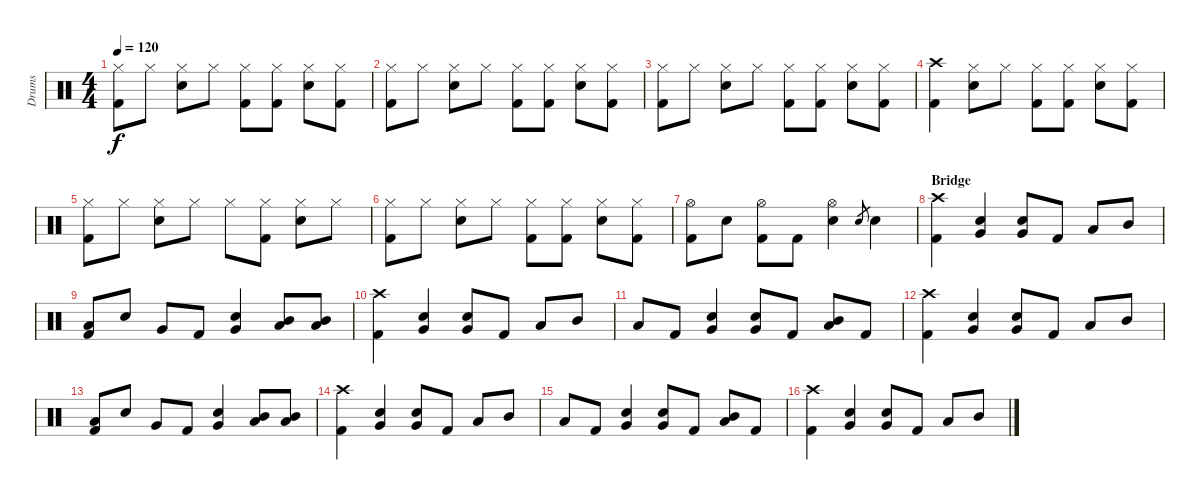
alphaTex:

\track ("Drums" "Drums") {instrument percussion}
\staff {score}
\articulation defaults
\ts (4 4)
\tempo 120
\clef neutral
\ks c
("Hi-Hat (closed)" "Kick (hit) 2").8{dy f} "Hi-Hat (closed)".8 ("Hi-Hat (closed)" "Electric Snare (hit)").8 "Hi-Hat (closed)".8 ("Hi-Hat (closed)" "Kick (hit) 2").8 ("Hi-Hat (closed)" "Kick (hit) 2").8 ("Hi-Hat (closed)" "Electric Snare (hit)").8 ("Hi-Hat (closed)" "Kick (hit) 2").8 |
("Hi-Hat (closed)" "Kick (hit) 2").8 "Hi-Hat (closed)".8 ("Hi-Hat (closed)" "Electric Snare (hit)").8 "Hi-Hat (closed)".8 ("Hi-Hat (closed)" "Kick (hit) 2").8 ("Hi-Hat (closed)" "Kick (hit) 2").8 ("Hi-Hat (closed)" "Electric Snare (hit)").8 ("Hi-Hat (closed)" "Kick (hit) 2").8 |
("Hi-Hat (closed)" "Kick (hit) 2").8 "Hi-Hat (closed)".8 ("Hi-Hat (closed)" "Electric Snare (hit)").8 "Hi-Hat (closed)".8 ("Hi-Hat (closed)" "Kick (hit) 2").8 ("Hi-Hat (closed)" "Kick (hit) 2").8 ("Hi-Hat (closed)" "Electric Snare (hit)").8 ("Hi-Hat (closed)" "Kick (hit) 2").8 |
("Crash high (hit)" "Kick (hit) 2").4 ("Hi-Hat (closed)" "Electric Snare (hit)").8 "Hi-Hat (closed)".8 ("Hi-Hat (closed)" "Kick (hit) 2").8 ("Hi-Hat (closed)" "Kick (hit) 2").8 ("Hi-Hat (closed)" "Electric Snare (hit)").8 ("Hi-Hat (closed)" "Kick (hit) 2").8 |
("Hi-Hat (closed)" "Kick (hit) 2").8 "Hi-Hat (closed)".8 ("Hi-Hat (closed)" "Electric Snare (hit)").8 "Hi-Hat (closed)".8 "Hi-Hat (closed)".8 ("Hi-Hat (closed)" "Kick (hit) 2").8 ("Hi-Hat (closed)" "Electric Snare (hit)").8 "Hi-Hat (closed)".8 |
("Hi-Hat (closed)" "Kick (hit) 2").8 "Hi-Hat (closed)".8 ("Hi-Hat (closed)" "Electric Snare (hit)").8 "Hi-Hat (closed)".8 ("Hi-Hat (closed)" "Kick (hit) 2").8 ("Hi-Hat (closed)" "Kick (hit) 2").8 ("Hi-Hat (closed)" "Electric Snare (hit)").8 ("Hi-Hat (closed)" "Kick (hit) 2").8 |
("Hi-Hat (open)" "Kick (hit) 2").8 "Electric Snare (hit)".8 ("Hi-Hat (open)" "Kick (hit) 2").8 "Kick (hit) 2".8 ("Hi-Hat (open)" "Electric Snare (hit)").4 "Electric Snare (hit)".8{gr} "Electric Snare (hit)".4 |
\section ("" "Bridge")
("Crash high (hit)" "Kick (hit) 2").4 ("Electric Snare (hit)" "Very Low Tom (hit)").4 ("Electric Snare (hit)" "Very Low Tom (hit)").8 "Kick (hit) 2".8 "Low Tom (hit)".8 "Mid Tom (hit)".8 |
("Low Tom (hit)" "Kick (hit) 2").8 "Electric Snare (hit)".8 "Very Low Tom (hit)".8 "Kick (hit) 2".8 ("Electric Snare (hit)" "Very Low Tom (hit)").4 ("Mid Tom (hit)" "Low Tom (hit)").8 ("Mid Tom (hit)" "Low Tom (hit)").8 |
("Crash high (hit)" "Kick (hit) 2").4 ("Electric Snare (hit)" "Very Low Tom (hit)").4 ("Electric Snare (hit)" "Very Low Tom (hit)").8 "Kick (hit) 2".8 "Low Tom (hit)".8 "Mid Tom (hit)".8 |
"Low Tom (hit)".8 "Kick (hit) 2".8 ("Electric Snare (hit)" "Very Low Tom (hit)").4 ("Electric Snare (hit)" "Very Low Tom (hit)").8 "Kick (hit) 2".8 ("Mid Tom (hit)" "Low Tom (hit)").8 "Kick (hit) 2".8 |
("Crash high (hit)" "Kick (hit) 2").4 ("Electric Snare (hit)" "Very Low Tom (hit)").4 ("Electric Snare (hit)" "Very Low Tom (hit)").8 "Kick (hit) 2".8 "Low Tom (hit)".8 "Mid Tom (hit)".8 |
("Low Tom (hit)" "Kick (hit) 2").8 "Electric Snare (hit)".8 "Very Low Tom (hit)".8 "Kick (hit) 2".8 ("Electric Snare (hit)" "Very Low Tom (hit)").4 ("Mid Tom (hit)" "Low Tom (hit)").8 ("Mid Tom (hit)" "Low Tom (hit)").8 |
("Crash high (hit)" "Kick (hit) 2").4 ("Electric Snare (hit)" "Very Low Tom (hit)").4 ("Electric Snare (hit)" "Very Low Tom (hit)").8 "Kick (hit) 2".8 "Low Tom (hit)".8 "Mid Tom (hit)".8 |
"Low Tom (hit)".8 "Kick (hit) 2".8 ("Electric Snare (hit)" "Very Low Tom (hit)").4 ("Electric Snare (hit)" "Very Low Tom (hit)").8 "Kick (hit) 2".8 ("Mid Tom (hit)" "Low Tom (hit)").8 "Kick (hit) 2".8 |
("Crash high (hit)" "Kick (hit) 2").4 ("Electric Snare (hit)" "Very Low Tom (hit)").4 ("Electric Snare (hit)" "Very Low Tom (hit)").8 "Kick (hit) 2".8 "Low Tom (hit)".8 "Mid Tom (hit)".8
